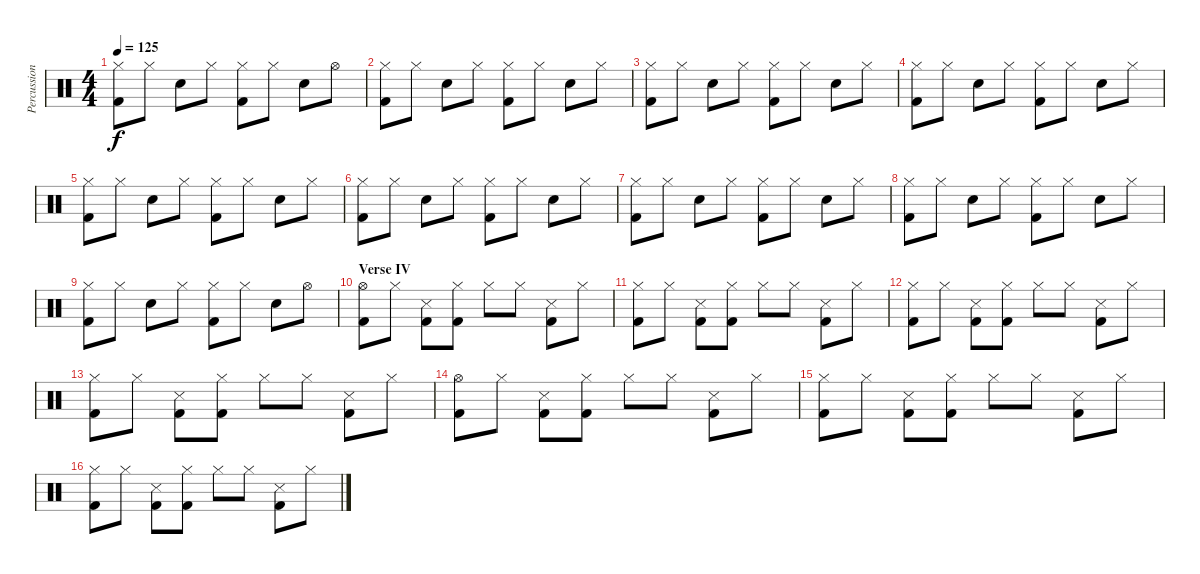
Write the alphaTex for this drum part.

\track ("Percussion" "Percussion") {instrument percussion}
\staff {score}
\articulation defaults
\ts (4 4)
\tempo 125
\clef neutral
\ks c
("Hi-Hat (closed)" "Kick (hit) 2").8{dy f} "Hi-Hat (closed)".8 "Electric Snare (hit)".8 "Hi-Hat (closed)".8 ("Hi-Hat (closed)" "Kick (hit) 2").8 "Hi-Hat (closed)".8 "Electric Snare (hit)".8 "Hi-Hat (open)".8 |
("Hi-Hat (closed)" "Kick (hit) 2").8 "Hi-Hat (closed)".8 "Electric Snare (hit)".8 "Hi-Hat (closed)".8 ("Hi-Hat (closed)" "Kick (hit) 2").8 "Hi-Hat (closed)".8 "Electric Snare (hit)".8 "Hi-Hat (closed)".8 |
("Hi-Hat (closed)" "Kick (hit) 2").8 "Hi-Hat (closed)".8 "Electric Snare (hit)".8 "Hi-Hat (closed)".8 ("Hi-Hat (closed)" "Kick (hit) 2").8 "Hi-Hat (closed)".8 "Electric Snare (hit)".8 "Hi-Hat (closed)".8 |
("Hi-Hat (closed)" "Kick (hit) 2").8 "Hi-Hat (closed)".8 "Electric Snare (hit)".8 "Hi-Hat (closed)".8 ("Hi-Hat (closed)" "Kick (hit) 2").8 "Hi-Hat (closed)".8 "Electric Snare (hit)".8 "Hi-Hat (closed)".8 |
("Hi-Hat (closed)" "Kick (hit) 2").8 "Hi-Hat (closed)".8 "Electric Snare (hit)".8 "Hi-Hat (closed)".8 ("Hi-Hat (closed)" "Kick (hit) 2").8 "Hi-Hat (closed)".8 "Electric Snare (hit)".8 "Hi-Hat (closed)".8 |
("Hi-Hat (closed)" "Kick (hit) 2").8 "Hi-Hat (closed)".8 "Electric Snare (hit)".8 "Hi-Hat (closed)".8 ("Hi-Hat (closed)" "Kick (hit) 2").8 "Hi-Hat (closed)".8 "Electric Snare (hit)".8 "Hi-Hat (closed)".8 |
("Hi-Hat (closed)" "Kick (hit) 2").8 "Hi-Hat (closed)".8 "Electric Snare (hit)".8 "Hi-Hat (closed)".8 ("Hi-Hat (closed)" "Kick (hit) 2").8 "Hi-Hat (closed)".8 "Electric Snare (hit)".8 "Hi-Hat (closed)".8 |
("Hi-Hat (closed)" "Kick (hit) 2").8 "Hi-Hat (closed)".8 "Electric Snare (hit)".8 "Hi-Hat (closed)".8 ("Hi-Hat (closed)" "Kick (hit) 2").8 "Hi-Hat (closed)".8 "Electric Snare (hit)".8 "Hi-Hat (closed)".8 |
("Hi-Hat (closed)" "Kick (hit) 2").8 "Hi-Hat (closed)".8 "Electric Snare (hit)".8 "Hi-Hat (closed)".8 ("Hi-Hat (closed)" "Kick (hit) 2").8 "Hi-Hat (closed)".8 "Electric Snare (hit)".8 "Hi-Hat (open)".8 |
\section ("" "Verse IV")
("Hi-Hat (open)" "Kick (hit) 2").8 "Hi-Hat (closed)".8 ("Snare (side stick) 3" "Kick (hit) 2").8 ("Hi-Hat (closed)" "Kick (hit) 2").8 "Hi-Hat (closed)".8 "Hi-Hat (closed)".8 ("Snare (side stick) 3" "Kick (hit) 2").8 "Hi-Hat (closed)".8 |
("Hi-Hat (closed)" "Kick (hit) 2").8 "Hi-Hat (closed)".8 ("Snare (side stick) 3" "Kick (hit) 2").8 ("Hi-Hat (closed)" "Kick (hit) 2").8 "Hi-Hat (closed)".8 "Hi-Hat (closed)".8 ("Snare (side stick) 3" "Kick (hit) 2").8 "Hi-Hat (closed)".8 |
("Hi-Hat (closed)" "Kick (hit) 2").8 "Hi-Hat (closed)".8 ("Snare (side stick) 3" "Kick (hit) 2").8 ("Hi-Hat (closed)" "Kick (hit) 2").8 "Hi-Hat (closed)".8 "Hi-Hat (closed)".8 ("Snare (side stick) 3" "Kick (hit) 2").8 "Hi-Hat (closed)".8 |
("Hi-Hat (closed)" "Kick (hit) 2").8 "Hi-Hat (closed)".8 ("Snare (side stick) 3" "Kick (hit) 2").8 ("Hi-Hat (closed)" "Kick (hit) 2").8 "Hi-Hat (closed)".8 "Hi-Hat (closed)".8 ("Snare (side stick) 3" "Kick (hit) 2").8 "Hi-Hat (closed)".8 |
("Hi-Hat (open)" "Kick (hit) 2").8 "Hi-Hat (closed)".8 ("Snare (side stick) 3" "Kick (hit) 2").8 ("Hi-Hat (closed)" "Kick (hit) 2").8 "Hi-Hat (closed)".8 "Hi-Hat (closed)".8 ("Snare (side stick) 3" "Kick (hit) 2").8 "Hi-Hat (closed)".8 |
("Hi-Hat (closed)" "Kick (hit) 2").8 "Hi-Hat (closed)".8 ("Snare (side stick) 3" "Kick (hit) 2").8 ("Hi-Hat (closed)" "Kick (hit) 2").8 "Hi-Hat (closed)".8 "Hi-Hat (closed)".8 ("Snare (side stick) 3" "Kick (hit) 2").8 "Hi-Hat (closed)".8 |
("Hi-Hat (closed)" "Kick (hit) 2").8 "Hi-Hat (closed)".8 ("Snare (side stick) 3" "Kick (hit) 2").8 ("Hi-Hat (closed)" "Kick (hit) 2").8 "Hi-Hat (closed)".8 "Hi-Hat (closed)".8 ("Snare (side stick) 3" "Kick (hit) 2").8 "Hi-Hat (closed)".8
